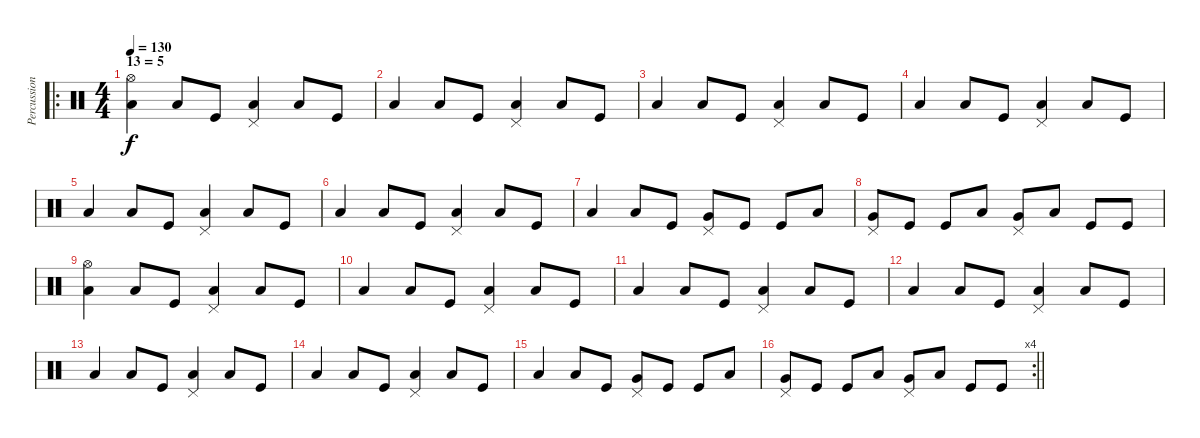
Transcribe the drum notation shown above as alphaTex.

\track ("Percussioni" "Percussion") {instrument percussion}
\staff {score}
\articulation defaults
\ro
\ts (4 4)
\section ("" "13 = 5")
\tempo 130
\clef neutral
\ks c
("Hi-Hat (open)" "Low Tom (hit)").4{dy f} "Low Floor Tom (hit)".8 "Kick (hit)".8 ("Low Floor Tom (hit)" "Pedal Hi-Hat (hit)").4 "Low Floor Tom (hit)".8 "Kick (hit)".8 |
"Low Floor Tom (hit)".4 "Low Floor Tom (hit)".8 "Kick (hit)".8 ("Low Floor Tom (hit)" "Pedal Hi-Hat (hit)").4 "Low Floor Tom (hit)".8 "Kick (hit)".8 |
"Low Floor Tom (hit)".4 "Low Floor Tom (hit)".8 "Kick (hit)".8 ("Low Floor Tom (hit)" "Pedal Hi-Hat (hit)").4 "Low Floor Tom (hit)".8 "Kick (hit)".8 |
"Low Floor Tom (hit)".4 "Low Floor Tom (hit)".8 "Kick (hit)".8 ("Low Floor Tom (hit)" "Pedal Hi-Hat (hit)").4 "Low Floor Tom (hit)".8 "Kick (hit)".8 |
"Low Floor Tom (hit)".4 "Low Floor Tom (hit)".8 "Kick (hit)".8 ("Low Floor Tom (hit)" "Pedal Hi-Hat (hit)").4 "Low Floor Tom (hit)".8 "Kick (hit)".8 |
"Low Floor Tom (hit)".4 "Low Floor Tom (hit)".8 "Kick (hit)".8 ("Low Floor Tom (hit)" "Pedal Hi-Hat (hit)").4 "Low Floor Tom (hit)".8 "Kick (hit)".8 |
"Low Floor Tom (hit)".4 "Low Floor Tom (hit)".8 "Kick (hit)".8 ("Very Low Tom (hit)" "Pedal Hi-Hat (hit)").8 "Kick (hit)".8 "Kick (hit)".8 "Low Floor Tom (hit)".8 |
("Very Low Tom (hit)" "Pedal Hi-Hat (hit)").8 "Kick (hit)".8 "Kick (hit)".8 "Low Floor Tom (hit)".8 ("Very Low Tom (hit)" "Pedal Hi-Hat (hit)").8 "Low Floor Tom (hit)".8 "Kick (hit)".8 "Kick (hit)".8 |
("Hi-Hat (open)" "Low Tom (hit)").4 "Low Floor Tom (hit)".8 "Kick (hit)".8 ("Low Floor Tom (hit)" "Pedal Hi-Hat (hit)").4 "Low Floor Tom (hit)".8 "Kick (hit)".8 |
"Low Floor Tom (hit)".4 "Low Floor Tom (hit)".8 "Kick (hit)".8 ("Low Floor Tom (hit)" "Pedal Hi-Hat (hit)").4 "Low Floor Tom (hit)".8 "Kick (hit)".8 |
"Low Floor Tom (hit)".4 "Low Floor Tom (hit)".8 "Kick (hit)".8 ("Low Floor Tom (hit)" "Pedal Hi-Hat (hit)").4 "Low Floor Tom (hit)".8 "Kick (hit)".8 |
"Low Floor Tom (hit)".4 "Low Floor Tom (hit)".8 "Kick (hit)".8 ("Low Floor Tom (hit)" "Pedal Hi-Hat (hit)").4 "Low Floor Tom (hit)".8 "Kick (hit)".8 |
"Low Floor Tom (hit)".4 "Low Floor Tom (hit)".8 "Kick (hit)".8 ("Low Floor Tom (hit)" "Pedal Hi-Hat (hit)").4 "Low Floor Tom (hit)".8 "Kick (hit)".8 |
"Low Floor Tom (hit)".4 "Low Floor Tom (hit)".8 "Kick (hit)".8 ("Low Floor Tom (hit)" "Pedal Hi-Hat (hit)").4 "Low Floor Tom (hit)".8 "Kick (hit)".8 |
"Low Floor Tom (hit)".4 "Low Floor Tom (hit)".8 "Kick (hit)".8 ("Very Low Tom (hit)" "Pedal Hi-Hat (hit)").8 "Kick (hit)".8 "Kick (hit)".8 "Low Floor Tom (hit)".8 |
\rc 4
\barLineRight lightlight
("Very Low Tom (hit)" "Pedal Hi-Hat (hit)").8 "Kick (hit)".8 "Kick (hit)".8 "Low Floor Tom (hit)".8 ("Very Low Tom (hit)" "Pedal Hi-Hat (hit)").8 "Low Floor Tom (hit)".8 "Kick (hit)".8 "Kick (hit)".8
